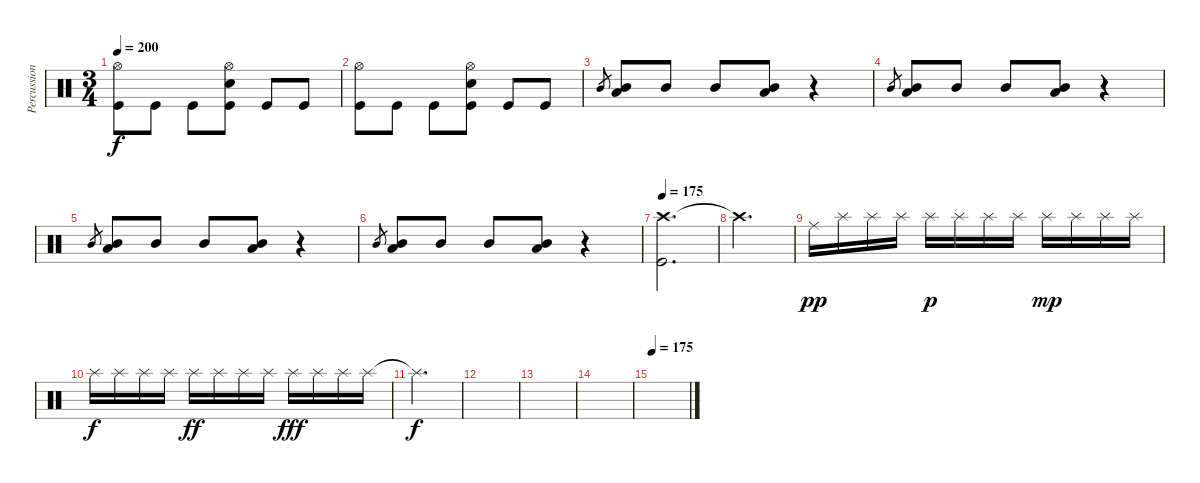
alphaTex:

\track ("Percussion" "Percussion") {instrument percussion}
\staff {score}
\articulation defaults
\ts (3 4)
\tempo 200
\clef neutral
\ks c
("Hi-Hat (open)" "Kick (hit)").8{dy f} "Kick (hit)".8 "Kick (hit)".8 ("Hi-Hat (open)" "Snare (hit) 2" "Kick (hit)").8 "Kick (hit)".8 "Kick (hit)".8 |
("Hi-Hat (open)" "Kick (hit)").8 "Kick (hit)".8 "Kick (hit)".8 ("Hi-Hat (open)" "Snare (hit) 2" "Kick (hit)").8 "Kick (hit)".8 "Kick (hit)".8 |
"Mid Tom (hit)".8{gr} ("Low Tom (hit)" "Mid Tom (hit)").8 "Mid Tom (hit)".8 "Mid Tom (hit)".8 ("Low Tom (hit)" "Mid Tom (hit)").8 r.4 |
"Mid Tom (hit)".8{gr} ("Low Tom (hit)" "Mid Tom (hit)").8 "Mid Tom (hit)".8 "Mid Tom (hit)".8 ("Low Tom (hit)" "Mid Tom (hit)").8 r.4 |
"Mid Tom (hit)".8{gr} ("Low Tom (hit)" "Mid Tom (hit)").8 "Mid Tom (hit)".8 "Mid Tom (hit)".8 ("Low Tom (hit)" "Mid Tom (hit)").8 r.4 |
"Mid Tom (hit)".8{gr} ("Low Tom (hit)" "Mid Tom (hit)").8 "Mid Tom (hit)".8 "Mid Tom (hit)".8 ("Low Tom (hit)" "Mid Tom (hit)").8 r.4 |
\tempo 175
("Crash high (hit)" "Kick (hit)").2{d} |
"Crash high (hit)"{t}.2{d} |
"Ride (middle)".16{dy pp} "Splash (hit)".16 "Splash (hit)".16 "Splash (hit)".16 "Splash (hit)".16{dy p} "Splash (hit)".16 "Splash (hit)".16 "Splash (hit)".16 "Splash (hit)".16{dy mp} "Splash (hit)".16 "Splash (hit)".16 "Splash (hit)".16 |
"Splash (hit)".16{dy f} "Splash (hit)".16 "Splash (hit)".16 "Splash (hit)".16 "Splash (hit)".16{dy ff} "Splash (hit)".16 "Splash (hit)".16 "Splash (hit)".16 "Splash (hit)".16{dy fff} "Splash (hit)".16 "Splash (hit)".16 "Splash (hit)".16 |
"Splash (hit)"{t}.2{d dy f} |
|
|
|
\tempo 175
